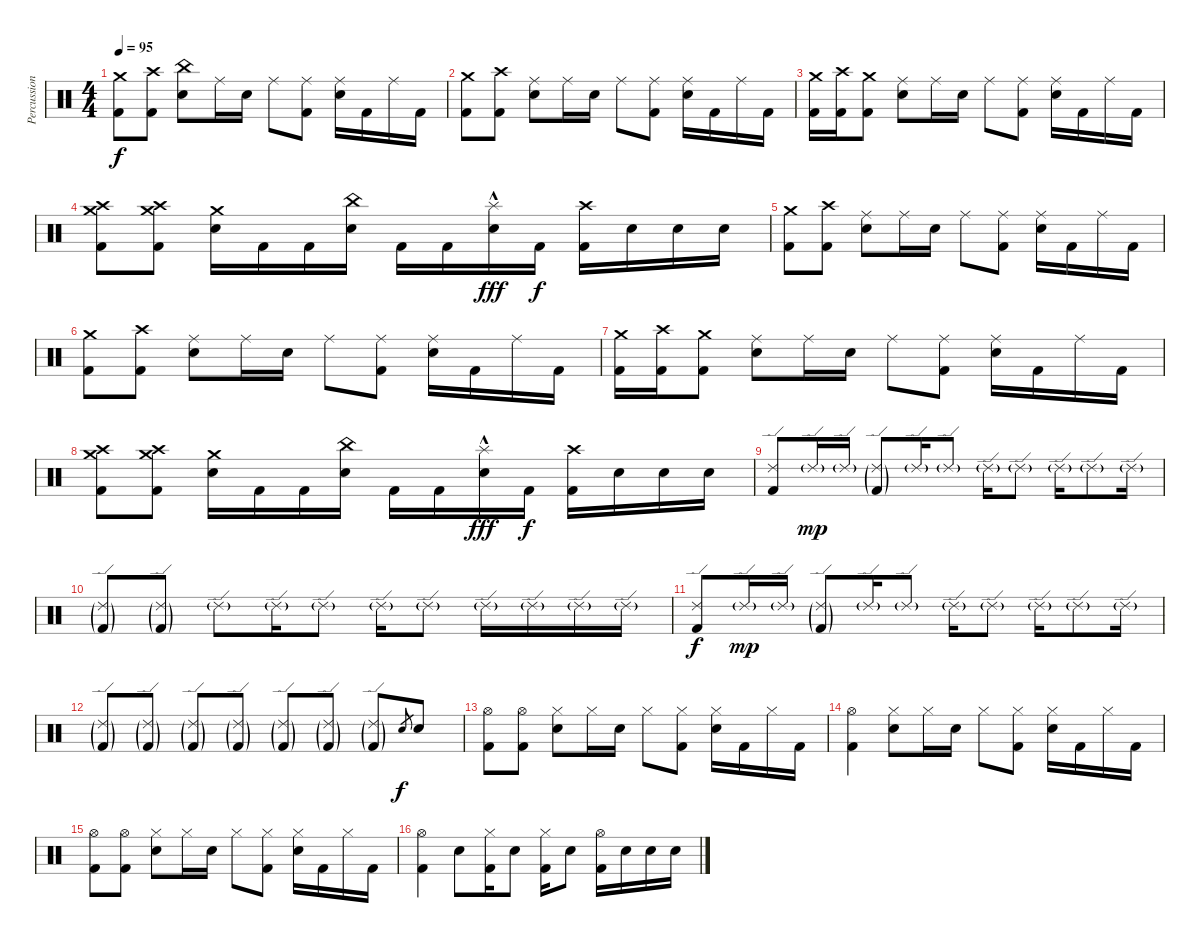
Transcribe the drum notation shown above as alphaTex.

\track ("Percussions" "Percussion") {instrument percussion}
\staff {score}
\articulation defaults
\ts (4 4)
\tempo 95
\clef neutral
\ks c
("Crash medium (hit)" "Kick (hit) 2").8{dy f} ("Crash high (hit)" "Kick (hit) 2").8 ("China (hit)" "Electric Snare (hit)").8 "Ride (middle)".16 "Electric Snare (hit)".16 "Ride (middle)".8 ("Ride (middle)" "Kick (hit) 2").8 ("Ride (middle)" "Electric Snare (hit)").16 "Kick (hit) 2".16 "Ride (middle)".16 "Kick (hit) 2".16 |
("Crash medium (hit)" "Kick (hit) 2").8 ("Crash high (hit)" "Kick (hit) 2").8 ("Ride (middle)" "Electric Snare (hit)").8 "Ride (middle)".16 "Electric Snare (hit)".16 "Ride (middle)".8 ("Ride (middle)" "Kick (hit) 2").8 ("Ride (middle)" "Electric Snare (hit)").16 "Kick (hit) 2".16 "Ride (middle)".16 "Kick (hit) 2".16 |
("Crash medium (hit)" "Kick (hit) 2").16 ("Crash high (hit)" "Kick (hit) 2").16 ("Crash medium (hit)" "Kick (hit) 2").8 ("Ride (middle)" "Electric Snare (hit)").8 "Ride (middle)".16 "Electric Snare (hit)".16 "Ride (middle)".8 ("Ride (middle)" "Kick (hit) 2").8 ("Ride (middle)" "Electric Snare (hit)").16 "Kick (hit) 2".16 "Ride (middle)".16 "Kick (hit) 2".16 |
("Crash medium (hit)" "Crash high (hit)" "Kick (hit) 2").8 ("Crash high (hit)" "Crash medium (hit)" "Kick (hit) 2").8 ("Crash medium (hit)" "Electric Snare (hit)").16 "Kick (hit) 2".16 "Kick (hit) 2".16 ("China (hit)" "Electric Snare (hit)").16 "Kick (hit) 2".16 "Kick (hit) 2".16 ("Splash (hit)"{hac} "Electric Snare (hit)").16{dy fff} "Kick (hit) 2".16{dy f} ("Crash high (hit)" "Kick (hit) 2").16 "Electric Snare (hit)".16 "Electric Snare (hit)".16 "Electric Snare (hit)".16 |
("Crash medium (hit)" "Kick (hit) 2").8 ("Crash high (hit)" "Kick (hit) 2").8 ("Ride (middle)" "Electric Snare (hit)").8 "Ride (middle)".16 "Electric Snare (hit)".16 "Ride (middle)".8 ("Ride (middle)" "Kick (hit) 2").8 ("Ride (middle)" "Electric Snare (hit)").16 "Kick (hit) 2".16 "Ride (middle)".16 "Kick (hit) 2".16 |
("Crash medium (hit)" "Kick (hit) 2").8 ("Crash high (hit)" "Kick (hit) 2").8 ("Ride (middle)" "Electric Snare (hit)").8 "Ride (middle)".16 "Electric Snare (hit)".16 "Ride (middle)".8 ("Ride (middle)" "Kick (hit) 2").8 ("Ride (middle)" "Electric Snare (hit)").16 "Kick (hit) 2".16 "Ride (middle)".16 "Kick (hit) 2".16 |
("Crash medium (hit)" "Kick (hit) 2").16 ("Crash high (hit)" "Kick (hit) 2").16 ("Crash medium (hit)" "Kick (hit) 2").8 ("Ride (middle)" "Electric Snare (hit)").8 "Ride (middle)".16 "Electric Snare (hit)".16 "Ride (middle)".8 ("Ride (middle)" "Kick (hit) 2").8 ("Ride (middle)" "Electric Snare (hit)").16 "Kick (hit) 2".16 "Ride (middle)".16 "Kick (hit) 2".16 |
("Crash medium (hit)" "Crash high (hit)" "Kick (hit) 2").8 ("Crash high (hit)" "Crash medium (hit)" "Kick (hit) 2").8 ("Crash medium (hit)" "Electric Snare (hit)").16 "Kick (hit) 2".16 "Kick (hit) 2".16 ("China (hit)" "Electric Snare (hit)").16 "Kick (hit) 2".16 "Kick (hit) 2".16 ("Splash (hit)"{hac} "Electric Snare (hit)").16{dy fff} "Kick (hit) 2".16{dy f} ("Crash high (hit)" "Kick (hit) 2").16 "Electric Snare (hit)".16 "Electric Snare (hit)".16 "Electric Snare (hit)".16 |
("Ride (edge) 2" "Kick (hit) 2").8 "Ride (edge) 2"{g}.16{dy mp} "Ride (edge) 2"{g}.16 ("Ride (edge) 2"{g} "Kick (hit) 2"{g}).8 "Ride (edge) 2"{g}.16 "Ride (edge) 2"{g}.8 "Ride (edge) 2"{g}.16 "Ride (edge) 2"{g}.8 "Ride (edge) 2"{g}.16 "Ride (edge) 2"{g}.8 "Ride (edge) 2"{g}.16 |
("Ride (edge) 2"{g} "Kick (hit) 2"{g}).8 ("Ride (edge) 2"{g} "Kick (hit) 2"{g}).8 "Ride (edge) 2"{g}.8 "Ride (edge) 2"{g}.16 "Ride (edge) 2"{g}.8 "Ride (edge) 2"{g}.16 "Ride (edge) 2"{g}.8 "Ride (edge) 2"{g}.16 "Ride (edge) 2"{g}.16 "Ride (edge) 2"{g}.16 "Ride (edge) 2"{g}.16 |
("Ride (edge) 2" "Kick (hit) 2").8{dy f} "Ride (edge) 2"{g}.16{dy mp} "Ride (edge) 2"{g}.16 ("Ride (edge) 2"{g} "Kick (hit) 2"{g}).8 "Ride (edge) 2"{g}.16 "Ride (edge) 2"{g}.8 "Ride (edge) 2"{g}.16 "Ride (edge) 2"{g}.8 "Ride (edge) 2"{g}.16 "Ride (edge) 2"{g}.8 "Ride (edge) 2"{g}.16 |
("Ride (edge) 2"{g} "Kick (hit) 2"{g}).8 ("Ride (edge) 2"{g} "Kick (hit) 2"{g}).8 ("Ride (edge) 2"{g} "Kick (hit) 2"{g}).8 ("Ride (edge) 2"{g} "Kick (hit) 2"{g}).8 ("Ride (edge) 2"{g} "Kick (hit) 2"{g}).8 ("Ride (edge) 2"{g} "Kick (hit) 2"{g}).8 ("Ride (edge) 2"{g} "Kick (hit) 2"{g}).8 "Electric Snare (hit)".8{gr dy f} "Electric Snare (hit)".8 |
("Hi-Hat (open)" "Kick (hit) 2").8 ("Hi-Hat (open)" "Kick (hit) 2").8 ("Hi-Hat (closed)" "Electric Snare (hit)").8 "Hi-Hat (closed)".16 "Electric Snare (hit)".16 "Hi-Hat (closed)".8 ("Hi-Hat (closed)" "Kick (hit) 2").8 ("Hi-Hat (closed)" "Electric Snare (hit)").16 "Kick (hit) 2".16 "Hi-Hat (closed)".16 "Kick (hit) 2".16 |
("Hi-Hat (open)" "Kick (hit) 2").4 ("Hi-Hat (closed)" "Electric Snare (hit)").8 "Hi-Hat (closed)".16 "Electric Snare (hit)".16 "Hi-Hat (closed)".8 ("Hi-Hat (closed)" "Kick (hit) 2").8 ("Hi-Hat (closed)" "Electric Snare (hit)").16 "Kick (hit) 2".16 "Hi-Hat (closed)".16 "Kick (hit) 2".16 |
("Hi-Hat (open)" "Kick (hit) 2").8 ("Hi-Hat (open)" "Kick (hit) 2").8 ("Hi-Hat (closed)" "Electric Snare (hit)").8 "Hi-Hat (closed)".16 "Electric Snare (hit)".16 "Hi-Hat (closed)".8 ("Hi-Hat (closed)" "Kick (hit) 2").8 ("Hi-Hat (closed)" "Electric Snare (hit)").16 "Kick (hit) 2".16 "Hi-Hat (closed)".16 "Kick (hit) 2".16 |
("Hi-Hat (open)" "Kick (hit) 2").4 "Electric Snare (hit)".8 ("Hi-Hat (closed)" "Kick (hit) 2").16 "Electric Snare (hit)".8 ("Hi-Hat (closed)" "Kick (hit) 2").16 "Electric Snare (hit)".8 ("Hi-Hat (open)" "Kick (hit) 2").16 "Electric Snare (hit)".16 "Electric Snare (hit)".16 "Electric Snare (hit)".16
